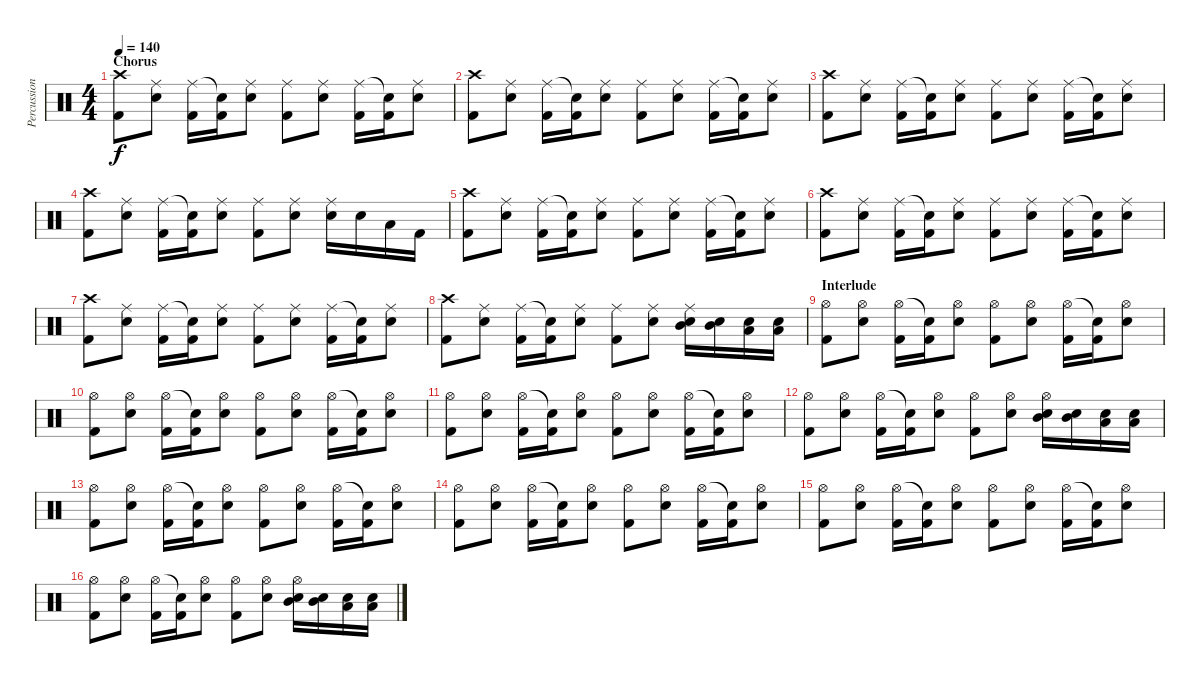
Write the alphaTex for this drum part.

\track ("Percussion" "Percussion") {instrument percussion}
\staff {score}
\articulation defaults
\ts (4 4)
\section ("" "Chorus")
\tempo 140
\clef neutral
\ks c
("Crash high (hit)" "Kick (hit) 2").8{dy f} ("Ride (middle)" "Electric Snare (hit)").8 ("Ride (middle)" "Kick (hit) 2").16 ("Snare (hit)"{t} "Kick (hit) 2").16 ("Ride (middle)" "Electric Snare (hit)").8 ("Ride (middle)" "Kick (hit) 2").8 ("Ride (middle)" "Electric Snare (hit)").8 ("Ride (middle)" "Kick (hit) 2").16 ("Snare (hit)"{t} "Kick (hit) 2").16 ("Ride (middle)" "Electric Snare (hit)").8 |
("Crash high (hit)" "Kick (hit) 2").8 ("Ride (middle)" "Electric Snare (hit)").8 ("Ride (middle)" "Kick (hit) 2").16 ("Snare (hit)"{t} "Kick (hit) 2").16 ("Ride (middle)" "Electric Snare (hit)").8 ("Ride (middle)" "Kick (hit) 2").8 ("Ride (middle)" "Electric Snare (hit)").8 ("Ride (middle)" "Kick (hit) 2").16 ("Snare (hit)"{t} "Kick (hit) 2").16 ("Ride (middle)" "Electric Snare (hit)").8 |
("Crash high (hit)" "Kick (hit) 2").8 ("Ride (middle)" "Electric Snare (hit)").8 ("Ride (middle)" "Kick (hit) 2").16 ("Snare (hit)"{t} "Kick (hit) 2").16 ("Ride (middle)" "Electric Snare (hit)").8 ("Ride (middle)" "Kick (hit) 2").8 ("Ride (middle)" "Electric Snare (hit)").8 ("Ride (middle)" "Kick (hit) 2").16 ("Snare (hit)"{t} "Kick (hit) 2").16 ("Ride (middle)" "Electric Snare (hit)").8 |
("Crash high (hit)" "Kick (hit) 2").8 ("Ride (middle)" "Electric Snare (hit)").8 ("Ride (middle)" "Kick (hit) 2").16 ("Snare (hit)"{t} "Kick (hit) 2").16 ("Ride (middle)" "Electric Snare (hit)").8 ("Ride (middle)" "Kick (hit) 2").8 ("Ride (middle)" "Electric Snare (hit)").8 ("Ride (middle)" "Electric Snare (hit)").16 "Electric Snare (hit)".16 "Low Tom (hit)".16 "Kick (hit) 2".16 |
("Crash high (hit)" "Kick (hit) 2").8 ("Ride (middle)" "Electric Snare (hit)").8 ("Ride (middle)" "Kick (hit) 2").16 ("Snare (hit)"{t} "Kick (hit) 2").16 ("Ride (middle)" "Electric Snare (hit)").8 ("Ride (middle)" "Kick (hit) 2").8 ("Ride (middle)" "Electric Snare (hit)").8 ("Ride (middle)" "Kick (hit) 2").16 ("Snare (hit)"{t} "Kick (hit) 2").16 ("Ride (middle)" "Electric Snare (hit)").8 |
("Crash high (hit)" "Kick (hit) 2").8 ("Ride (middle)" "Electric Snare (hit)").8 ("Ride (middle)" "Kick (hit) 2").16 ("Snare (hit)"{t} "Kick (hit) 2").16 ("Ride (middle)" "Electric Snare (hit)").8 ("Ride (middle)" "Kick (hit) 2").8 ("Ride (middle)" "Electric Snare (hit)").8 ("Ride (middle)" "Kick (hit) 2").16 ("Snare (hit)"{t} "Kick (hit) 2").16 ("Ride (middle)" "Electric Snare (hit)").8 |
("Crash high (hit)" "Kick (hit) 2").8 ("Ride (middle)" "Electric Snare (hit)").8 ("Ride (middle)" "Kick (hit) 2").16 ("Snare (hit)"{t} "Kick (hit) 2").16 ("Ride (middle)" "Electric Snare (hit)").8 ("Ride (middle)" "Kick (hit) 2").8 ("Ride (middle)" "Electric Snare (hit)").8 ("Ride (middle)" "Kick (hit) 2").16 ("Snare (hit)"{t} "Kick (hit) 2").16 ("Ride (middle)" "Electric Snare (hit)").8 |
("Crash high (hit)" "Kick (hit) 2").8 ("Ride (middle)" "Electric Snare (hit)").8 ("Ride (middle)" "Kick (hit) 2").16 ("Snare (hit)"{t} "Kick (hit) 2").16 ("Ride (middle)" "Electric Snare (hit)").8 ("Ride (middle)" "Kick (hit) 2").8 ("Ride (middle)" "Electric Snare (hit)").8 ("Ride (middle)" "Electric Snare (hit)" "Mid Tom (hit)").16 ("Electric Snare (hit)" "Mid Tom (hit)").16 ("Electric Snare (hit)" "Low Tom (hit)").16 ("Electric Snare (hit)" "Low Tom (hit)").16 |
\section ("" "Interlude")
("Hi-Hat (open)" "Kick (hit) 2").8 ("Hi-Hat (open)" "Electric Snare (hit)").8 ("Hi-Hat (open)" "Kick (hit) 2").16 ("Snare (hit)"{t} "Kick (hit) 2").16 ("Hi-Hat (open)" "Electric Snare (hit)").8 ("Hi-Hat (open)" "Kick (hit) 2").8 ("Hi-Hat (open)" "Electric Snare (hit)").8 ("Hi-Hat (open)" "Kick (hit) 2").16 ("Snare (hit)"{t} "Kick (hit) 2").16 ("Hi-Hat (open)" "Electric Snare (hit)").8 |
("Hi-Hat (open)" "Kick (hit) 2").8 ("Hi-Hat (open)" "Electric Snare (hit)").8 ("Hi-Hat (open)" "Kick (hit) 2").16 ("Snare (hit)"{t} "Kick (hit) 2").16 ("Hi-Hat (open)" "Electric Snare (hit)").8 ("Hi-Hat (open)" "Kick (hit) 2").8 ("Hi-Hat (open)" "Electric Snare (hit)").8 ("Hi-Hat (open)" "Kick (hit) 2").16 ("Snare (hit)"{t} "Kick (hit) 2").16 ("Hi-Hat (open)" "Electric Snare (hit)").8 |
("Hi-Hat (open)" "Kick (hit) 2").8 ("Hi-Hat (open)" "Electric Snare (hit)").8 ("Hi-Hat (open)" "Kick (hit) 2").16 ("Snare (hit)"{t} "Kick (hit) 2").16 ("Hi-Hat (open)" "Electric Snare (hit)").8 ("Hi-Hat (open)" "Kick (hit) 2").8 ("Hi-Hat (open)" "Electric Snare (hit)").8 ("Hi-Hat (open)" "Kick (hit) 2").16 ("Snare (hit)"{t} "Kick (hit) 2").16 ("Hi-Hat (open)" "Electric Snare (hit)").8 |
("Hi-Hat (open)" "Kick (hit) 2").8 ("Hi-Hat (open)" "Electric Snare (hit)").8 ("Hi-Hat (open)" "Kick (hit) 2").16 ("Snare (hit)"{t} "Kick (hit) 2").16 ("Hi-Hat (open)" "Electric Snare (hit)").8 ("Hi-Hat (open)" "Kick (hit) 2").8 ("Hi-Hat (open)" "Electric Snare (hit)").8 ("Hi-Hat (open)" "Electric Snare (hit)" "Mid Tom (hit)").16 ("Electric Snare (hit)" "Mid Tom (hit)").16 ("Electric Snare (hit)" "Low Tom (hit)").16 ("Electric Snare (hit)" "Low Tom (hit)").16 |
("Hi-Hat (open)" "Kick (hit) 2").8 ("Hi-Hat (open)" "Electric Snare (hit)").8 ("Hi-Hat (open)" "Kick (hit) 2").16 ("Snare (hit)"{t} "Kick (hit) 2").16 ("Hi-Hat (open)" "Electric Snare (hit)").8 ("Hi-Hat (open)" "Kick (hit) 2").8 ("Hi-Hat (open)" "Electric Snare (hit)").8 ("Hi-Hat (open)" "Kick (hit) 2").16 ("Snare (hit)"{t} "Kick (hit) 2").16 ("Hi-Hat (open)" "Electric Snare (hit)").8 |
("Hi-Hat (open)" "Kick (hit) 2").8 ("Hi-Hat (open)" "Electric Snare (hit)").8 ("Hi-Hat (open)" "Kick (hit) 2").16 ("Snare (hit)"{t} "Kick (hit) 2").16 ("Hi-Hat (open)" "Electric Snare (hit)").8 ("Hi-Hat (open)" "Kick (hit) 2").8 ("Hi-Hat (open)" "Electric Snare (hit)").8 ("Hi-Hat (open)" "Kick (hit) 2").16 ("Snare (hit)"{t} "Kick (hit) 2").16 ("Hi-Hat (open)" "Electric Snare (hit)").8 |
("Hi-Hat (open)" "Kick (hit) 2").8 ("Hi-Hat (open)" "Electric Snare (hit)").8 ("Hi-Hat (open)" "Kick (hit) 2").16 ("Snare (hit)"{t} "Kick (hit) 2").16 ("Hi-Hat (open)" "Electric Snare (hit)").8 ("Hi-Hat (open)" "Kick (hit) 2").8 ("Hi-Hat (open)" "Electric Snare (hit)").8 ("Hi-Hat (open)" "Kick (hit) 2").16 ("Snare (hit)"{t} "Kick (hit) 2").16 ("Hi-Hat (open)" "Electric Snare (hit)").8 |
("Hi-Hat (open)" "Kick (hit) 2").8 ("Hi-Hat (open)" "Electric Snare (hit)").8 ("Hi-Hat (open)" "Kick (hit) 2").16 ("Snare (hit)"{t} "Kick (hit) 2").16 ("Hi-Hat (open)" "Electric Snare (hit)").8 ("Hi-Hat (open)" "Kick (hit) 2").8 ("Hi-Hat (open)" "Electric Snare (hit)").8 ("Hi-Hat (open)" "Electric Snare (hit)" "Mid Tom (hit)").16 ("Electric Snare (hit)" "Mid Tom (hit)").16 ("Electric Snare (hit)" "Low Tom (hit)").16 ("Electric Snare (hit)" "Low Tom (hit)").16
